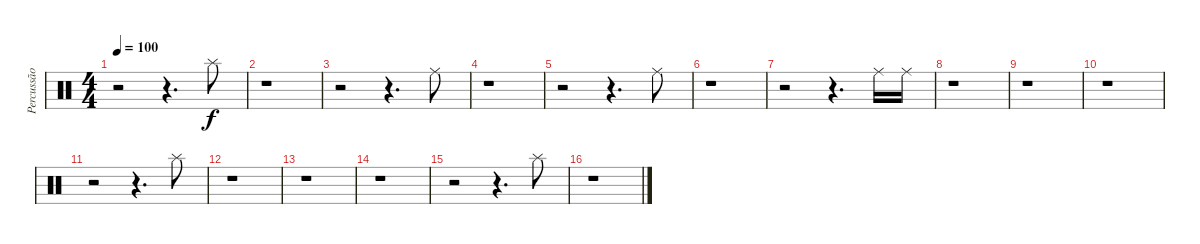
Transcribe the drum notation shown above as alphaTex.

\track ("Percussão" "Percussão") {instrument percussion}
\staff {score}
\articulation defaults
\ts (4 4)
\tempo 100
\clef neutral
\ks c
r.2{dy f} r.4{d} "Splash (hit)".8 |
r.1 |
r.2 r.4{d} "Ride (middle)".8 |
\ks aminor
r.1 |
\ks c
r.2 r.4{d} "Ride (middle)".8 |
\ks aminor
r.1 |
\ks c
r.2 r.4{d} "Ride (middle)".16 "Ride (middle)".16 |
r.1 |
r.1 |
r.1 |
r.2 r.4{d} "Splash (hit)".8 |
\ks aminor
r.1 |
r.1 |
r.1 |
\ks c
r.2 r.4{d} "Splash (hit)".8 |
r.1
